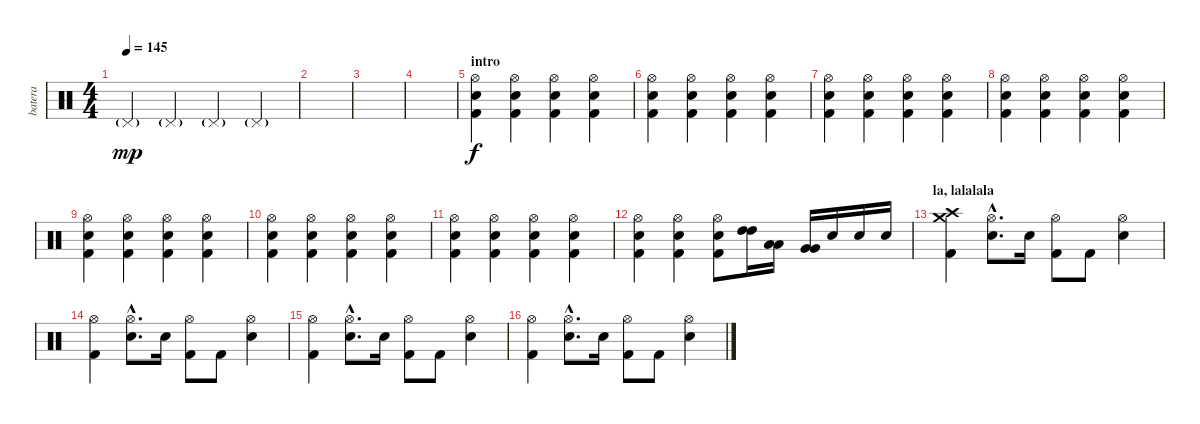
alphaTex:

\track ("batera" "batera") {instrument percussion}
\staff {score}
\articulation defaults
\ts (4 4)
\tempo 145
\clef neutral
\ks c "Pedal Hi-Hat (hit)"{g}.4{dy mp} "Pedal Hi-Hat (hit)"{g}.4 "Pedal Hi-Hat (hit)"{g}.4 "Pedal Hi-Hat (hit)"{g}.4
|
|
|
|
\section ("" "intro")
("Snare (hit) 2" "Kick (hit) 2" "Hi-Hat (open)").4{dy f} ("Snare (hit) 2" "Kick (hit) 2" "Hi-Hat (open)").4 ("Snare (hit) 2" "Kick (hit) 2" "Hi-Hat (open)").4 ("Snare (hit) 2" "Kick (hit) 2" "Hi-Hat (open)").4 |
("Snare (hit) 2" "Kick (hit) 2" "Hi-Hat (open)").4 ("Snare (hit) 2" "Kick (hit) 2" "Hi-Hat (open)").4 ("Snare (hit) 2" "Kick (hit) 2" "Hi-Hat (open)").4 ("Snare (hit) 2" "Kick (hit) 2" "Hi-Hat (open)").4 |
("Snare (hit) 2" "Kick (hit) 2" "Hi-Hat (open)").4 ("Snare (hit) 2" "Kick (hit) 2" "Hi-Hat (open)").4 ("Snare (hit) 2" "Kick (hit) 2" "Hi-Hat (open)").4 ("Snare (hit) 2" "Kick (hit) 2" "Hi-Hat (open)").4 |
("Snare (hit) 2" "Kick (hit) 2" "Hi-Hat (open)").4 ("Snare (hit) 2" "Kick (hit) 2" "Hi-Hat (open)").4 ("Snare (hit) 2" "Kick (hit) 2" "Hi-Hat (open)").4 ("Snare (hit) 2" "Kick (hit) 2" "Hi-Hat (open)").4 |
("Snare (hit) 2" "Kick (hit) 2" "Hi-Hat (open)").4 ("Snare (hit) 2" "Kick (hit) 2" "Hi-Hat (open)").4 ("Snare (hit) 2" "Kick (hit) 2" "Hi-Hat (open)").4 ("Snare (hit) 2" "Kick (hit) 2" "Hi-Hat (open)").4 |
("Snare (hit) 2" "Kick (hit) 2" "Hi-Hat (open)").4 ("Snare (hit) 2" "Kick (hit) 2" "Hi-Hat (open)").4 ("Snare (hit) 2" "Kick (hit) 2" "Hi-Hat (open)").4 ("Snare (hit) 2" "Kick (hit) 2" "Hi-Hat (open)").4 |
("Snare (hit) 2" "Kick (hit) 2" "Hi-Hat (open)").4 ("Snare (hit) 2" "Kick (hit) 2" "Hi-Hat (open)").4 ("Snare (hit) 2" "Kick (hit) 2" "Hi-Hat (open)").4 ("Snare (hit) 2" "Kick (hit) 2" "Hi-Hat (open)").4 |
("Snare (hit) 2" "Kick (hit) 2" "Hi-Hat (open)").4 ("Snare (hit) 2" "Kick (hit) 2" "Hi-Hat (open)").4 ("Snare (hit) 2" "Kick (hit) 2" "Hi-Hat (open)").8 ("High Tom (hit)" "High Tom (hit)").16 ("Low Tom (hit)" "Low Tom (hit)").16 ("Very Low Tom (hit)" "Very Low Tom (hit)").16 "Snare (hit) 2".16 "Snare (hit) 2".16 "Snare (hit) 2".16 |
\section ("" "la, lalalala")
("Crash high (hit)" "Crash medium (hit)" "Kick (hit) 2").4 ("Snare (hit) 2"{hac} "Hi-Hat (open)"{hac}).8{d} "Snare (hit) 2".16 ("Kick (hit) 2" "Hi-Hat (open)").8 "Kick (hit) 2".8 ("Snare (hit) 2" "Hi-Hat (open)").4 |
("Kick (hit) 2" "Hi-Hat (open)").4 ("Snare (hit) 2"{hac} "Hi-Hat (open)"{hac}).8{d} "Snare (hit) 2".16 ("Kick (hit) 2" "Hi-Hat (open)").8 "Kick (hit) 2".8 ("Snare (hit) 2" "Hi-Hat (open)").4 |
("Kick (hit) 2" "Hi-Hat (open)").4 ("Snare (hit) 2"{hac} "Hi-Hat (open)"{hac}).8{d} "Snare (hit) 2".16 ("Kick (hit) 2" "Hi-Hat (open)").8 "Kick (hit) 2".8 ("Snare (hit) 2" "Hi-Hat (open)").4 |
("Kick (hit) 2" "Hi-Hat (open)").4 ("Snare (hit) 2"{hac} "Hi-Hat (open)"{hac}).8{d} "Snare (hit) 2".16 ("Kick (hit) 2" "Hi-Hat (open)").8 "Kick (hit) 2".8 ("Snare (hit) 2" "Hi-Hat (open)").4
